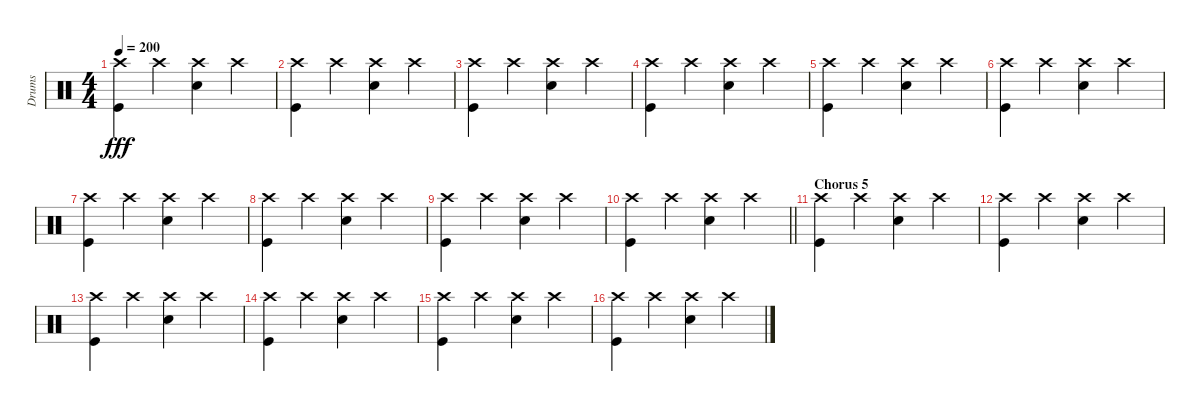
\track ("Drums" "Drums") {instrument percussion}
\staff {score}
\articulation defaults
\ts (4 4)
\tempo 200
\clef neutral
\ks c
("Crash high (hit)" "Kick (hit)").4{dy fff} "Crash high (hit)".4 ("Crash high (hit)" "Snare (hit) 2").4 "Crash high (hit)".4 |
("Crash high (hit)" "Kick (hit)").4 "Crash high (hit)".4 ("Crash high (hit)" "Snare (hit) 2").4 "Crash high (hit)".4 |
("Crash high (hit)" "Kick (hit)").4 "Crash high (hit)".4 ("Crash high (hit)" "Snare (hit) 2").4 "Crash high (hit)".4 |
("Crash high (hit)" "Kick (hit)").4 "Crash high (hit)".4 ("Crash high (hit)" "Snare (hit) 2").4 "Crash high (hit)".4 |
("Crash high (hit)" "Kick (hit)").4 "Crash high (hit)".4 ("Crash high (hit)" "Snare (hit) 2").4 "Crash high (hit)".4 |
("Crash high (hit)" "Kick (hit)").4 "Crash high (hit)".4 ("Crash high (hit)" "Snare (hit) 2").4 "Crash high (hit)".4 |
("Crash high (hit)" "Kick (hit)").4 "Crash high (hit)".4 ("Crash high (hit)" "Snare (hit) 2").4 "Crash high (hit)".4 |
("Crash high (hit)" "Kick (hit)").4 "Crash high (hit)".4 ("Crash high (hit)" "Snare (hit) 2").4 "Crash high (hit)".4 |
("Crash high (hit)" "Kick (hit)").4 "Crash high (hit)".4 ("Crash high (hit)" "Snare (hit) 2").4 "Crash high (hit)".4 |
\barLineRight lightlight
("Crash high (hit)" "Kick (hit)").4 "Crash high (hit)".4 ("Crash high (hit)" "Snare (hit) 2").4 "Crash high (hit)".4 |
\section ("" "Chorus 5")
("Crash high (hit)" "Kick (hit)").4 "Crash high (hit)".4 ("Crash high (hit)" "Snare (hit) 2").4 "Crash high (hit)".4 |
("Crash high (hit)" "Kick (hit)").4 "Crash high (hit)".4 ("Crash high (hit)" "Snare (hit) 2").4 "Crash high (hit)".4 |
("Crash high (hit)" "Kick (hit)").4 "Crash high (hit)".4 ("Crash high (hit)" "Snare (hit) 2").4 "Crash high (hit)".4 |
("Crash high (hit)" "Kick (hit)").4 "Crash high (hit)".4 ("Crash high (hit)" "Snare (hit) 2").4 "Crash high (hit)".4 |
("Crash high (hit)" "Kick (hit)").4 "Crash high (hit)".4 ("Crash high (hit)" "Snare (hit) 2").4 "Crash high (hit)".4 |
("Crash high (hit)" "Kick (hit)").4 "Crash high (hit)".4 ("Crash high (hit)" "Snare (hit) 2").4 "Crash high (hit)".4
